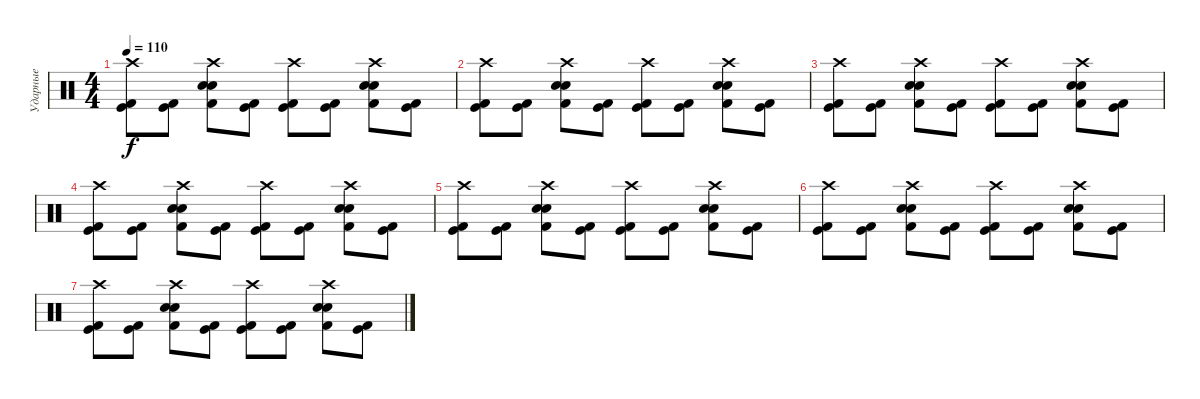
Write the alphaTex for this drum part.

\track ("Ударные" "Ударные") {instrument percussion}
\staff {score}
\articulation defaults
\ts (4 4)
\tempo 110
\clef neutral
\ks c
("Crash high (hit)" "Kick (hit)" "Kick (hit) 2").8{dy f} ("Kick (hit)" "Kick (hit) 2").8 ("Crash high (hit)" "Snare (hit) 2" "Electric Snare (hit)" "Kick (hit) 2").8 ("Kick (hit)" "Kick (hit) 2").8 ("Crash high (hit)" "Kick (hit)" "Kick (hit) 2").8 ("Kick (hit)" "Kick (hit) 2").8 ("Crash high (hit)" "Snare (hit) 2" "Electric Snare (hit)" "Kick (hit) 2").8 ("Kick (hit)" "Kick (hit) 2").8 |
("Crash high (hit)" "Kick (hit)" "Kick (hit) 2").8 ("Kick (hit)" "Kick (hit) 2").8 ("Crash high (hit)" "Snare (hit) 2" "Electric Snare (hit)" "Kick (hit) 2").8 ("Kick (hit)" "Kick (hit) 2").8 ("Crash high (hit)" "Kick (hit)" "Kick (hit) 2").8 ("Kick (hit)" "Kick (hit) 2").8 ("Crash high (hit)" "Snare (hit) 2" "Electric Snare (hit)" "Kick (hit) 2").8 ("Kick (hit)" "Kick (hit) 2").8 |
("Crash high (hit)" "Kick (hit)" "Kick (hit) 2").8 ("Kick (hit)" "Kick (hit) 2").8 ("Crash high (hit)" "Snare (hit) 2" "Electric Snare (hit)" "Kick (hit) 2").8 ("Kick (hit)" "Kick (hit) 2").8 ("Crash high (hit)" "Kick (hit)" "Kick (hit) 2").8 ("Kick (hit)" "Kick (hit) 2").8 ("Crash high (hit)" "Snare (hit) 2" "Electric Snare (hit)" "Kick (hit) 2").8 ("Kick (hit)" "Kick (hit) 2").8 |
("Crash high (hit)" "Kick (hit)" "Kick (hit) 2").8 ("Kick (hit)" "Kick (hit) 2").8 ("Crash high (hit)" "Snare (hit) 2" "Electric Snare (hit)" "Kick (hit) 2").8 ("Kick (hit)" "Kick (hit) 2").8 ("Crash high (hit)" "Kick (hit)" "Kick (hit) 2").8 ("Kick (hit)" "Kick (hit) 2").8 ("Crash high (hit)" "Snare (hit) 2" "Electric Snare (hit)" "Kick (hit) 2").8 ("Kick (hit)" "Kick (hit) 2").8 |
("Crash high (hit)" "Kick (hit)" "Kick (hit) 2").8 ("Kick (hit)" "Kick (hit) 2").8 ("Crash high (hit)" "Snare (hit) 2" "Electric Snare (hit)" "Kick (hit) 2").8 ("Kick (hit)" "Kick (hit) 2").8 ("Crash high (hit)" "Kick (hit)" "Kick (hit) 2").8 ("Kick (hit)" "Kick (hit) 2").8 ("Crash high (hit)" "Snare (hit) 2" "Electric Snare (hit)" "Kick (hit) 2").8 ("Kick (hit)" "Kick (hit) 2").8 |
("Crash high (hit)" "Kick (hit)" "Kick (hit) 2").8 ("Kick (hit)" "Kick (hit) 2").8 ("Crash high (hit)" "Snare (hit) 2" "Electric Snare (hit)" "Kick (hit) 2").8 ("Kick (hit)" "Kick (hit) 2").8 ("Crash high (hit)" "Kick (hit)" "Kick (hit) 2").8 ("Kick (hit)" "Kick (hit) 2").8 ("Crash high (hit)" "Snare (hit) 2" "Electric Snare (hit)" "Kick (hit) 2").8 ("Kick (hit)" "Kick (hit) 2").8 |
("Crash high (hit)" "Kick (hit)" "Kick (hit) 2").8 ("Kick (hit)" "Kick (hit) 2").8 ("Crash high (hit)" "Snare (hit) 2" "Electric Snare (hit)" "Kick (hit) 2").8 ("Kick (hit)" "Kick (hit) 2").8 ("Crash high (hit)" "Kick (hit)" "Kick (hit) 2").8 ("Kick (hit)" "Kick (hit) 2").8 ("Crash high (hit)" "Snare (hit) 2" "Electric Snare (hit)" "Kick (hit) 2").8 ("Kick (hit)" "Kick (hit) 2").8
